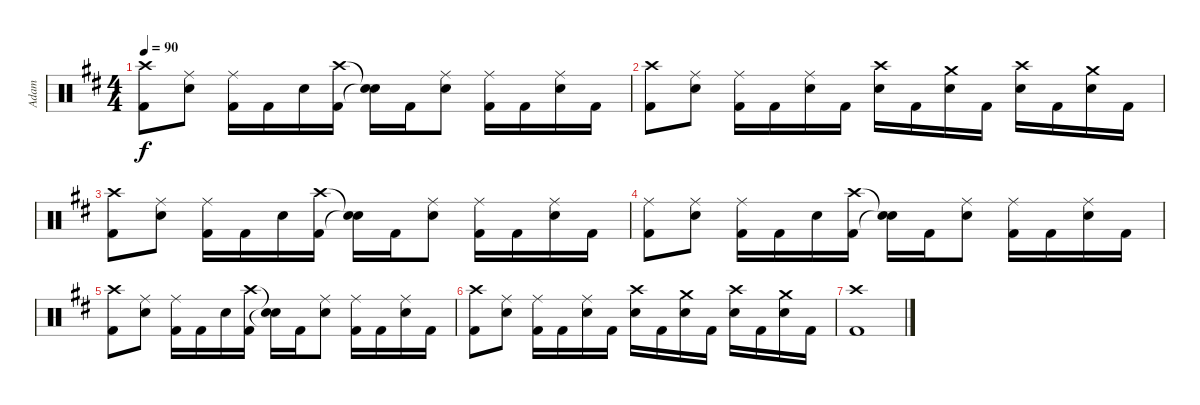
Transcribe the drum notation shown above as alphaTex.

\track ("Adam" "Adam") {instrument percussion}
\staff {score}
\articulation defaults
\ts (4 4)
\tempo 90
\clef neutral
\ks d
("Crash high (hit)" "Kick (hit) 2").8{dy f} ("Ride (middle)" "Snare (hit) 2").8 ("Ride (middle)" "Kick (hit) 2").16 "Kick (hit) 2".16 "Snare (hit) 2".16 ("Crash high (hit)" "Kick (hit) 2").16 ("Snare (hit)"{t} "Snare (hit)"{t}).16 "Kick (hit) 2".16 ("Ride (middle)" "Snare (hit) 2").8 ("Ride (middle)" "Kick (hit) 2").16 "Kick (hit) 2".16 ("Ride (middle)" "Snare (hit) 2").16 "Kick (hit) 2".16 |
("Crash high (hit)" "Kick (hit) 2").8 ("Ride (middle)" "Snare (hit) 2").8 ("Ride (middle)" "Kick (hit) 2").16 "Kick (hit) 2".16 ("Ride (middle)" "Snare (hit) 2").16 "Kick (hit) 2".16 ("Crash high (hit)" "Snare (hit) 2").16 "Kick (hit) 2".16 ("Crash medium (hit)" "Snare (hit) 2").16 "Kick (hit) 2".16 ("Crash high (hit)" "Snare (hit) 2").16 "Kick (hit) 2".16 ("Crash medium (hit)" "Snare (hit) 2").16 "Kick (hit) 2".16 |
("Crash high (hit)" "Kick (hit) 2").8 ("Ride (middle)" "Snare (hit) 2").8 ("Ride (middle)" "Kick (hit) 2").16 "Kick (hit) 2".16 "Snare (hit) 2".16 ("Crash high (hit)" "Kick (hit) 2").16 ("Snare (hit)"{t} "Snare (hit)"{t}).16 "Kick (hit) 2".16 ("Ride (middle)" "Snare (hit) 2").8 ("Ride (middle)" "Kick (hit) 2").16 "Kick (hit) 2".16 ("Ride (middle)" "Snare (hit) 2").16 "Kick (hit) 2".16 |
("Ride (middle)" "Kick (hit) 2").8 ("Ride (middle)" "Snare (hit) 2").8 ("Ride (middle)" "Kick (hit) 2").16 "Kick (hit) 2".16 "Snare (hit) 2".16 ("Crash high (hit)" "Kick (hit) 2").16 ("Snare (hit)"{t} "Snare (hit)"{t}).16 "Kick (hit) 2".16 ("Ride (middle)" "Snare (hit) 2").8 ("Ride (middle)" "Kick (hit) 2").16 "Kick (hit) 2".16 ("Ride (middle)" "Snare (hit) 2").16 "Kick (hit) 2".16 |
("Crash high (hit)" "Kick (hit) 2").8 ("Ride (middle)" "Snare (hit) 2").8 ("Ride (middle)" "Kick (hit) 2").16 "Kick (hit) 2".16 "Snare (hit) 2".16 ("Crash high (hit)" "Kick (hit) 2").16 ("Snare (hit)"{t} "Snare (hit)"{t}).16 "Kick (hit) 2".16 ("Ride (middle)" "Snare (hit) 2").8 ("Ride (middle)" "Kick (hit) 2").16 "Kick (hit) 2".16 ("Ride (middle)" "Snare (hit) 2").16 "Kick (hit) 2".16 |
("Crash high (hit)" "Kick (hit) 2").8 ("Ride (middle)" "Snare (hit) 2").8 ("Ride (middle)" "Kick (hit) 2").16 "Kick (hit) 2".16 ("Ride (middle)" "Snare (hit) 2").16 "Kick (hit) 2".16 ("Crash high (hit)" "Snare (hit) 2").16 "Kick (hit) 2".16 ("Crash medium (hit)" "Snare (hit) 2").16 "Kick (hit) 2".16 ("Crash high (hit)" "Snare (hit) 2").16 "Kick (hit) 2".16 ("Crash medium (hit)" "Snare (hit) 2").16 "Kick (hit) 2".16 |
("Crash high (hit)" "Kick (hit) 2").1
